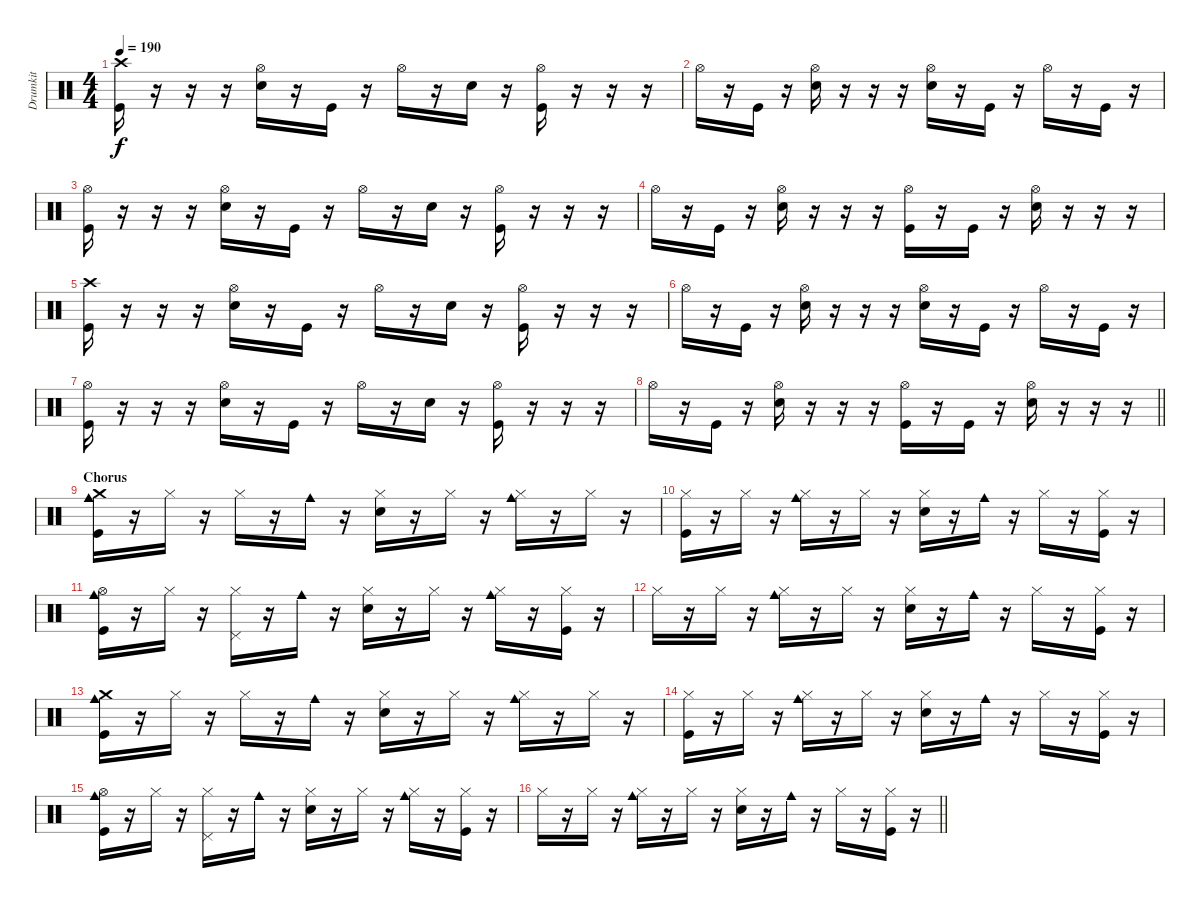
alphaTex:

\track ("Drumkit" "Drumkit") {instrument percussion}
\staff {score}
\articulation defaults
\ts (4 4)
\tempo 190
\clef neutral
\ks c
("Crash high (hit)" "Kick (hit)").16{dy f} r.16 r.16 r.16 ("Hi-Hat (open)" "Snare (hit) 2").16 r.16 "Kick (hit)".16 r.16 "Hi-Hat (open)".16 r.16 "Snare (hit) 2".16 r.16 ("Hi-Hat (open)" "Kick (hit)").16 r.16 r.16 r.16 |
"Hi-Hat (open)".16 r.16 "Kick (hit)".16 r.16 ("Hi-Hat (open)" "Snare (hit) 2").16 r.16 r.16 r.16 ("Hi-Hat (open)" "Snare (hit) 2").16 r.16 "Kick (hit)".16 r.16 "Hi-Hat (open)".16 r.16 "Kick (hit)".16 r.16 |
("Hi-Hat (open)" "Kick (hit)").16 r.16 r.16 r.16 ("Hi-Hat (open)" "Snare (hit) 2").16 r.16 "Kick (hit)".16 r.16 "Hi-Hat (open)".16 r.16 "Snare (hit) 2".16 r.16 ("Hi-Hat (open)" "Kick (hit)").16 r.16 r.16 r.16 |
"Hi-Hat (open)".16 r.16 "Kick (hit)".16 r.16 ("Hi-Hat (open)" "Snare (hit) 2").16 r.16 r.16 r.16 ("Hi-Hat (open)" "Kick (hit)").16 r.16 "Kick (hit)".16 r.16 ("Hi-Hat (open)" "Snare (hit) 2").16 r.16 r.16 r.16 |
("Crash high (hit)" "Kick (hit)").16 r.16 r.16 r.16 ("Hi-Hat (open)" "Snare (hit) 2").16 r.16 "Kick (hit)".16 r.16 "Hi-Hat (open)".16 r.16 "Snare (hit) 2".16 r.16 ("Hi-Hat (open)" "Kick (hit)").16 r.16 r.16 r.16 |
"Hi-Hat (open)".16 r.16 "Kick (hit)".16 r.16 ("Hi-Hat (open)" "Snare (hit) 2").16 r.16 r.16 r.16 ("Hi-Hat (open)" "Snare (hit) 2").16 r.16 "Kick (hit)".16 r.16 "Hi-Hat (open)".16 r.16 "Kick (hit)".16 r.16 |
("Hi-Hat (open)" "Kick (hit)").16 r.16 r.16 r.16 ("Hi-Hat (open)" "Snare (hit) 2").16 r.16 "Kick (hit)".16 r.16 "Hi-Hat (open)".16 r.16 "Snare (hit) 2".16 r.16 ("Hi-Hat (open)" "Kick (hit)").16 r.16 r.16 r.16 |
\barLineRight lightlight "Hi-Hat (open)".16
r.16 "Kick (hit)".16 r.16 ("Hi-Hat (open)" "Snare (hit) 2").16 r.16 r.16 r.16 ("Hi-Hat (open)" "Kick (hit)").16 r.16 "Kick (hit)".16 r.16 ("Hi-Hat (open)" "Snare (hit) 2").16 r.16 r.16 r.16 |
\section ("" "Chorus")
("Crash medium (hit)" "Cowbell medium (hit)" "Kick (hit)").16 r.16 "Hi-Hat (closed)".16 r.16 "Hi-Hat (closed)".16 r.16 "Cowbell medium (hit)".16 r.16 ("Hi-Hat (closed)" "Snare (hit) 2").16 r.16 "Hi-Hat (closed)".16 r.16 ("Hi-Hat (closed)" "Cowbell medium (hit)").16 r.16 "Hi-Hat (closed)".16 r.16 |
("Hi-Hat (closed)" "Kick (hit)").16 r.16 "Hi-Hat (closed)".16 r.16 ("Hi-Hat (closed)" "Cowbell medium (hit)").16 r.16 "Hi-Hat (closed)".16 r.16 ("Hi-Hat (closed)" "Snare (hit) 2").16 r.16 "Cowbell medium (hit)".16 r.16 "Hi-Hat (closed)".16 r.16 ("Hi-Hat (closed)" "Kick (hit)").16 r.16 |
("Hi-Hat (open)" "Cowbell medium (hit)" "Kick (hit)").16 r.16 "Hi-Hat (closed)".16 r.16 ("Hi-Hat (closed)" "Pedal Hi-Hat (hit)").16 r.16 "Cowbell medium (hit)".16 r.16 ("Hi-Hat (closed)" "Snare (hit) 2").16 r.16 "Hi-Hat (closed)".16 r.16 ("Hi-Hat (closed)" "Cowbell medium (hit)").16 r.16 ("Hi-Hat (closed)" "Kick (hit)").16 r.16 |
"Hi-Hat (closed)".16 r.16 "Hi-Hat (closed)".16 r.16 ("Hi-Hat (closed)" "Cowbell medium (hit)").16 r.16 "Hi-Hat (closed)".16 r.16 ("Hi-Hat (closed)" "Snare (hit) 2").16 r.16 "Cowbell medium (hit)".16 r.16 "Hi-Hat (closed)".16 r.16 ("Hi-Hat (closed)" "Kick (hit)").16 r.16 |
("Crash medium (hit)" "Cowbell medium (hit)" "Kick (hit)").16 r.16 "Hi-Hat (closed)".16 r.16 "Hi-Hat (closed)".16 r.16 "Cowbell medium (hit)".16 r.16 ("Hi-Hat (closed)" "Snare (hit) 2").16 r.16 "Hi-Hat (closed)".16 r.16 ("Hi-Hat (closed)" "Cowbell medium (hit)").16 r.16 "Hi-Hat (closed)".16 r.16 |
("Hi-Hat (closed)" "Kick (hit)").16 r.16 "Hi-Hat (closed)".16 r.16 ("Hi-Hat (closed)" "Cowbell medium (hit)").16 r.16 "Hi-Hat (closed)".16 r.16 ("Hi-Hat (closed)" "Snare (hit) 2").16 r.16 "Cowbell medium (hit)".16 r.16 "Hi-Hat (closed)".16 r.16 ("Hi-Hat (closed)" "Kick (hit)").16 r.16 |
("Hi-Hat (open)" "Cowbell medium (hit)" "Kick (hit)").16 r.16 "Hi-Hat (closed)".16 r.16 ("Hi-Hat (closed)" "Pedal Hi-Hat (hit)").16 r.16 "Cowbell medium (hit)".16 r.16 ("Hi-Hat (closed)" "Snare (hit) 2").16 r.16 "Hi-Hat (closed)".16 r.16 ("Hi-Hat (closed)" "Cowbell medium (hit)").16 r.16 ("Hi-Hat (closed)" "Kick (hit)").16 r.16 |
\barLineRight lightlight "Hi-Hat (closed)".16
r.16 "Hi-Hat (closed)".16 r.16 ("Hi-Hat (closed)" "Cowbell medium (hit)").16 r.16 "Hi-Hat (closed)".16 r.16 ("Hi-Hat (closed)" "Snare (hit) 2").16 r.16 "Cowbell medium (hit)".16 r.16 "Hi-Hat (closed)".16 r.16 ("Hi-Hat (closed)" "Kick (hit)").16 r.16
